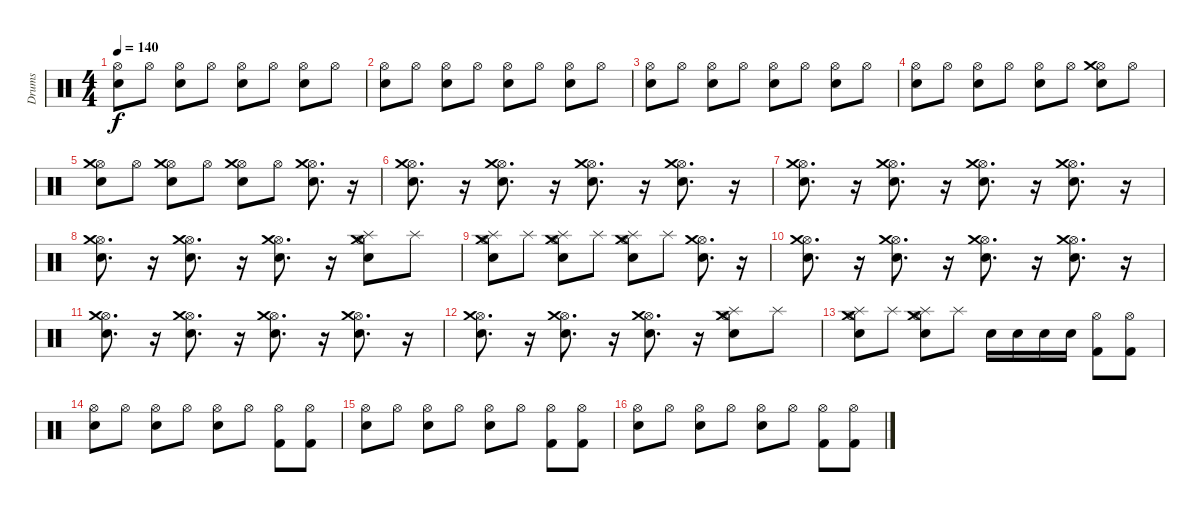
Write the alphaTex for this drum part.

\track ("Drums" "Drums") {instrument percussion}
\staff {score}
\articulation defaults
\ts (4 4)
\tempo 140
\clef neutral
\ks c
("Snare (hit) 2" "Hi-Hat (open)").8{dy f} "Hi-Hat (open)".8 ("Snare (hit) 2" "Hi-Hat (open)").8 "Hi-Hat (open)".8 ("Snare (hit) 2" "Hi-Hat (open)").8 "Hi-Hat (open)".8 ("Snare (hit) 2" "Hi-Hat (open)").8 "Hi-Hat (open)".8 |
("Snare (hit) 2" "Hi-Hat (open)").8 "Hi-Hat (open)".8 ("Snare (hit) 2" "Hi-Hat (open)").8 "Hi-Hat (open)".8 ("Snare (hit) 2" "Hi-Hat (open)").8 "Hi-Hat (open)".8 ("Snare (hit) 2" "Hi-Hat (open)").8 "Hi-Hat (open)".8 |
("Snare (hit) 2" "Hi-Hat (open)").8 "Hi-Hat (open)".8 ("Snare (hit) 2" "Hi-Hat (open)").8 "Hi-Hat (open)".8 ("Snare (hit) 2" "Hi-Hat (open)").8 "Hi-Hat (open)".8 ("Snare (hit) 2" "Hi-Hat (open)").8 "Hi-Hat (open)".8 |
("Snare (hit) 2" "Hi-Hat (open)").8 "Hi-Hat (open)".8 ("Snare (hit) 2" "Hi-Hat (open)").8 "Hi-Hat (open)".8 ("Snare (hit) 2" "Hi-Hat (open)").8 "Hi-Hat (open)".8 ("Snare (hit) 2" "Hi-Hat (open)" "Crash medium (hit)").8 "Hi-Hat (open)".8 |
("Snare (hit) 2" "Hi-Hat (open)" "Crash medium (hit)").8 "Hi-Hat (open)".8 ("Snare (hit) 2" "Hi-Hat (open)" "Crash medium (hit)").8 "Hi-Hat (open)".8 ("Snare (hit) 2" "Hi-Hat (open)" "Crash medium (hit)").8 "Hi-Hat (open)".8 ("Snare (hit) 2" "Hi-Hat (open)" "Crash medium (hit)").8{d} r.16 |
("Snare (hit) 2" "Hi-Hat (open)" "Crash medium (hit)").8{d} r.16 ("Snare (hit) 2" "Hi-Hat (open)" "Crash medium (hit)").8{d} r.16 ("Snare (hit) 2" "Hi-Hat (open)" "Crash medium (hit)").8{d} r.16 ("Snare (hit) 2" "Hi-Hat (open)" "Crash medium (hit)").8{d} r.16 |
("Snare (hit) 2" "Hi-Hat (open)" "Crash medium (hit)").8{d} r.16 ("Snare (hit) 2" "Hi-Hat (open)" "Crash medium (hit)").8{d} r.16 ("Snare (hit) 2" "Hi-Hat (open)" "Crash medium (hit)").8{d} r.16 ("Snare (hit) 2" "Hi-Hat (open)" "Crash medium (hit)").8{d} r.16 |
("Snare (hit) 2" "Hi-Hat (open)" "Crash medium (hit)").8{d} r.16 ("Snare (hit) 2" "Hi-Hat (open)" "Crash medium (hit)").8{d} r.16 ("Snare (hit) 2" "Hi-Hat (open)" "Crash medium (hit)").8{d} r.16 ("Snare (hit) 2" "Hi-Hat (open)" "Crash medium (hit)" "Splash (hit)").8 "Splash (hit)".8 |
("Snare (hit) 2" "Hi-Hat (open)" "Crash medium (hit)" "Splash (hit)").8 "Splash (hit)".8 ("Snare (hit) 2" "Hi-Hat (open)" "Crash medium (hit)" "Splash (hit)").8 "Splash (hit)".8 ("Snare (hit) 2" "Hi-Hat (open)" "Crash medium (hit)" "Splash (hit)").8 "Splash (hit)".8 ("Snare (hit) 2" "Hi-Hat (open)" "Crash medium (hit)").8{d} r.16 |
("Snare (hit) 2" "Hi-Hat (open)" "Crash medium (hit)").8{d} r.16 ("Snare (hit) 2" "Hi-Hat (open)" "Crash medium (hit)").8{d} r.16 ("Snare (hit) 2" "Hi-Hat (open)" "Crash medium (hit)").8{d} r.16 ("Snare (hit) 2" "Hi-Hat (open)" "Crash medium (hit)").8{d} r.16 |
("Snare (hit) 2" "Hi-Hat (open)" "Crash medium (hit)").8{d} r.16 ("Snare (hit) 2" "Hi-Hat (open)" "Crash medium (hit)").8{d} r.16 ("Snare (hit) 2" "Hi-Hat (open)" "Crash medium (hit)").8{d} r.16 ("Snare (hit) 2" "Hi-Hat (open)" "Crash medium (hit)").8{d} r.16 |
("Snare (hit) 2" "Hi-Hat (open)" "Crash medium (hit)").8{d} r.16 ("Snare (hit) 2" "Hi-Hat (open)" "Crash medium (hit)").8{d} r.16 ("Snare (hit) 2" "Hi-Hat (open)" "Crash medium (hit)").8{d} r.16 ("Snare (hit) 2" "Hi-Hat (open)" "Crash medium (hit)" "Splash (hit)").8 "Splash (hit)".8 |
("Snare (hit) 2" "Hi-Hat (open)" "Crash medium (hit)" "Splash (hit)").8 "Splash (hit)".8 ("Snare (hit) 2" "Hi-Hat (open)" "Crash medium (hit)" "Splash (hit)").8 "Splash (hit)".8 "Electric Snare (hit)".16 "Electric Snare (hit)".16 "Electric Snare (hit)".16 "Electric Snare (hit)".16 ("Hi-Hat (open)" "Kick (hit) 2").8 ("Hi-Hat (open)" "Kick (hit) 2").8 |
("Hi-Hat (open)" "Snare (hit) 2").8 "Hi-Hat (open)".8 ("Snare (hit) 2" "Hi-Hat (open)").8 "Hi-Hat (open)".8 ("Snare (hit) 2" "Hi-Hat (open)").8 "Hi-Hat (open)".8 ("Hi-Hat (open)" "Kick (hit) 2").8 ("Hi-Hat (open)" "Kick (hit) 2").8 |
("Hi-Hat (open)" "Snare (hit) 2").8 "Hi-Hat (open)".8 ("Snare (hit) 2" "Hi-Hat (open)").8 "Hi-Hat (open)".8 ("Snare (hit) 2" "Hi-Hat (open)").8 "Hi-Hat (open)".8 ("Hi-Hat (open)" "Kick (hit) 2").8 ("Hi-Hat (open)" "Kick (hit) 2").8 |
("Hi-Hat (open)" "Snare (hit) 2").8 "Hi-Hat (open)".8 ("Snare (hit) 2" "Hi-Hat (open)").8 "Hi-Hat (open)".8 ("Snare (hit) 2" "Hi-Hat (open)").8 "Hi-Hat (open)".8 ("Hi-Hat (open)" "Kick (hit) 2").8 ("Hi-Hat (open)" "Kick (hit) 2").8
